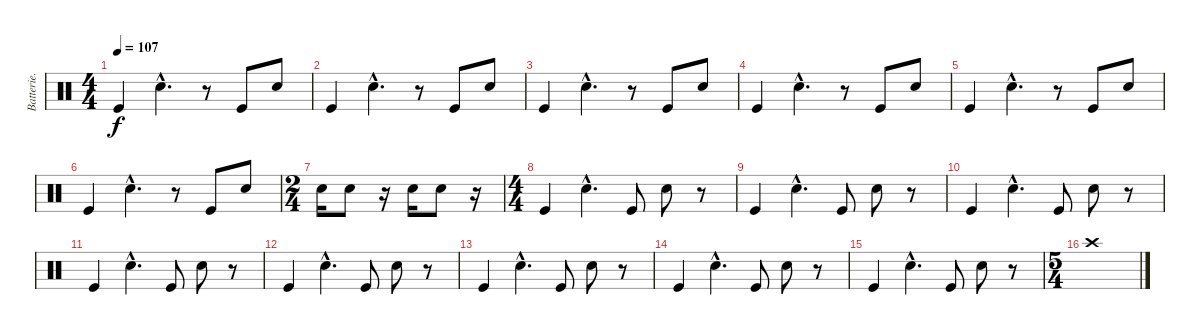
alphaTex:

\track ("Batterie." "Batterie.") {instrument percussion}
\staff {score}
\articulation defaults
\ts (4 4)
\tempo 107
\clef neutral
\ks c "Kick (hit)".4{dy f} "Electric Snare (hit)"{hac}.4{d}
r.8 "Kick (hit)".8 "Electric Snare (hit)".8 |
"Kick (hit)".4 "Electric Snare (hit)"{hac}.4{d} r.8 "Kick (hit)".8 "Electric Snare (hit)".8 |
"Kick (hit)".4 "Electric Snare (hit)"{hac}.4{d} r.8 "Kick (hit)".8 "Electric Snare (hit)".8 |
"Kick (hit)".4 "Electric Snare (hit)"{hac}.4{d} r.8 "Kick (hit)".8 "Electric Snare (hit)".8 |
"Kick (hit)".4 "Electric Snare (hit)"{hac}.4{d} r.8 "Kick (hit)".8 "Electric Snare (hit)".8 |
"Kick (hit)".4 "Electric Snare (hit)"{hac}.4{d} r.8 "Kick (hit)".8 "Electric Snare (hit)".8 |
\ts (2 4)
"Electric Snare (hit)".16 "Electric Snare (hit)".8 r.16 "Electric Snare (hit)".16 "Electric Snare (hit)".8 r.16 |
\ts (4 4)
"Kick (hit)".4 "Electric Snare (hit)"{hac}.4{d} "Kick (hit)".8 "Electric Snare (hit)".8 r.8 |
"Kick (hit)".4 "Electric Snare (hit)"{hac}.4{d} "Kick (hit)".8 "Electric Snare (hit)".8 r.8 |
"Kick (hit)".4 "Electric Snare (hit)"{hac}.4{d} "Kick (hit)".8 "Electric Snare (hit)".8 r.8 |
"Kick (hit)".4 "Electric Snare (hit)"{hac}.4{d} "Kick (hit)".8 "Electric Snare (hit)".8 r.8 |
"Kick (hit)".4 "Electric Snare (hit)"{hac}.4{d} "Kick (hit)".8 "Electric Snare (hit)".8 r.8 |
"Kick (hit)".4 "Electric Snare (hit)"{hac}.4{d} "Kick (hit)".8 "Electric Snare (hit)".8 r.8 |
"Kick (hit)".4 "Electric Snare (hit)"{hac}.4{d} "Kick (hit)".8 "Electric Snare (hit)".8 r.8 |
"Kick (hit)".4 "Electric Snare (hit)"{hac}.4{d} "Kick (hit)".8 "Electric Snare (hit)".8 r.8 |
\ts (5 4)
"Crash high (hit)".1
